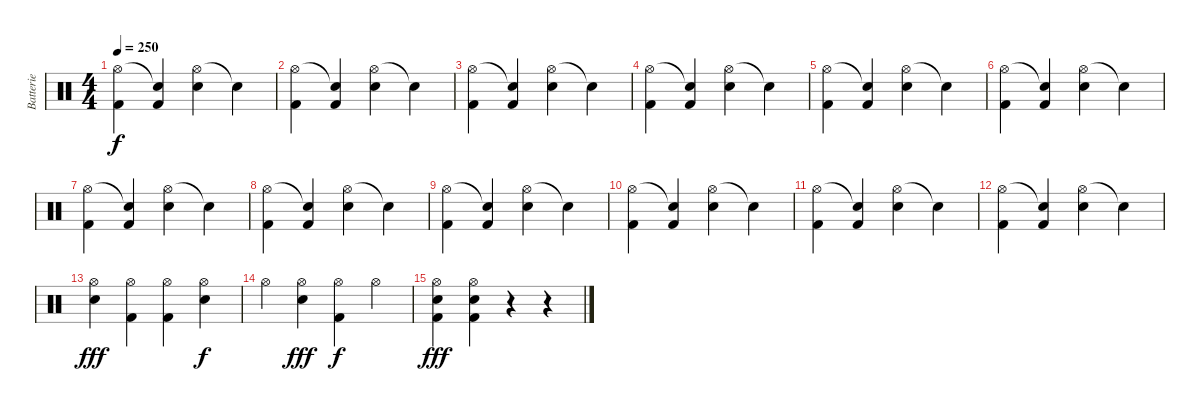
\track ("Batterie" "Batterie") {instrument percussion}
\staff {score}
\articulation defaults
\ts (4 4)
\tempo 250
\clef neutral
\ks c
("Hi-Hat (open)" "Kick (hit) 2").4{dy f} ("Snare (hit)"{t} "Kick (hit) 2").4 ("Hi-Hat (open)" "Electric Snare (hit)").4 "Snare (hit)"{t}.4 |
("Hi-Hat (open)" "Kick (hit) 2").4 ("Snare (hit)"{t} "Kick (hit) 2").4 ("Hi-Hat (open)" "Electric Snare (hit)").4 "Snare (hit)"{t}.4 |
("Hi-Hat (open)" "Kick (hit) 2").4 ("Snare (hit)"{t} "Kick (hit) 2").4 ("Hi-Hat (open)" "Electric Snare (hit)").4 "Snare (hit)"{t}.4 |
("Hi-Hat (open)" "Kick (hit) 2").4 ("Snare (hit)"{t} "Kick (hit) 2").4 ("Hi-Hat (open)" "Electric Snare (hit)").4 "Snare (hit)"{t}.4 |
("Hi-Hat (open)" "Kick (hit) 2").4 ("Snare (hit)"{t} "Kick (hit) 2").4 ("Hi-Hat (open)" "Electric Snare (hit)").4 "Snare (hit)"{t}.4 |
("Hi-Hat (open)" "Kick (hit) 2").4 ("Snare (hit)"{t} "Kick (hit) 2").4 ("Hi-Hat (open)" "Electric Snare (hit)").4 "Snare (hit)"{t}.4 |
("Hi-Hat (open)" "Kick (hit) 2").4 ("Snare (hit)"{t} "Kick (hit) 2").4 ("Hi-Hat (open)" "Electric Snare (hit)").4 "Snare (hit)"{t}.4 |
("Hi-Hat (open)" "Kick (hit) 2").4 ("Snare (hit)"{t} "Kick (hit) 2").4 ("Hi-Hat (open)" "Electric Snare (hit)").4 "Snare (hit)"{t}.4 |
("Hi-Hat (open)" "Kick (hit) 2").4 ("Snare (hit)"{t} "Kick (hit) 2").4 ("Hi-Hat (open)" "Electric Snare (hit)").4 "Snare (hit)"{t}.4 |
("Hi-Hat (open)" "Kick (hit) 2").4 ("Snare (hit)"{t} "Kick (hit) 2").4 ("Hi-Hat (open)" "Electric Snare (hit)").4 "Snare (hit)"{t}.4 |
("Hi-Hat (open)" "Kick (hit) 2").4 ("Snare (hit)"{t} "Kick (hit) 2").4 ("Hi-Hat (open)" "Electric Snare (hit)").4 "Snare (hit)"{t}.4 |
("Hi-Hat (open)" "Kick (hit) 2").4 ("Snare (hit)"{t} "Kick (hit) 2").4 ("Hi-Hat (open)" "Electric Snare (hit)").4 "Snare (hit)"{t}.4 |
("Hi-Hat (open)" "Electric Snare (hit)").4{dy fff} ("Hi-Hat (open)" "Kick (hit) 2").4 ("Hi-Hat (open)" "Kick (hit) 2").4 ("Hi-Hat (open)" "Electric Snare (hit)").4{dy f} |
"Hi-Hat (open)".4 ("Hi-Hat (open)" "Electric Snare (hit)").4{dy fff} ("Hi-Hat (open)" "Kick (hit) 2").4{dy f} "Hi-Hat (open)".4 |
("Hi-Hat (open)" "Electric Snare (hit)" "Kick (hit) 2").4{dy fff} ("Hi-Hat (open)" "Electric Snare (hit)" "Kick (hit) 2").4 r.4 r.4
